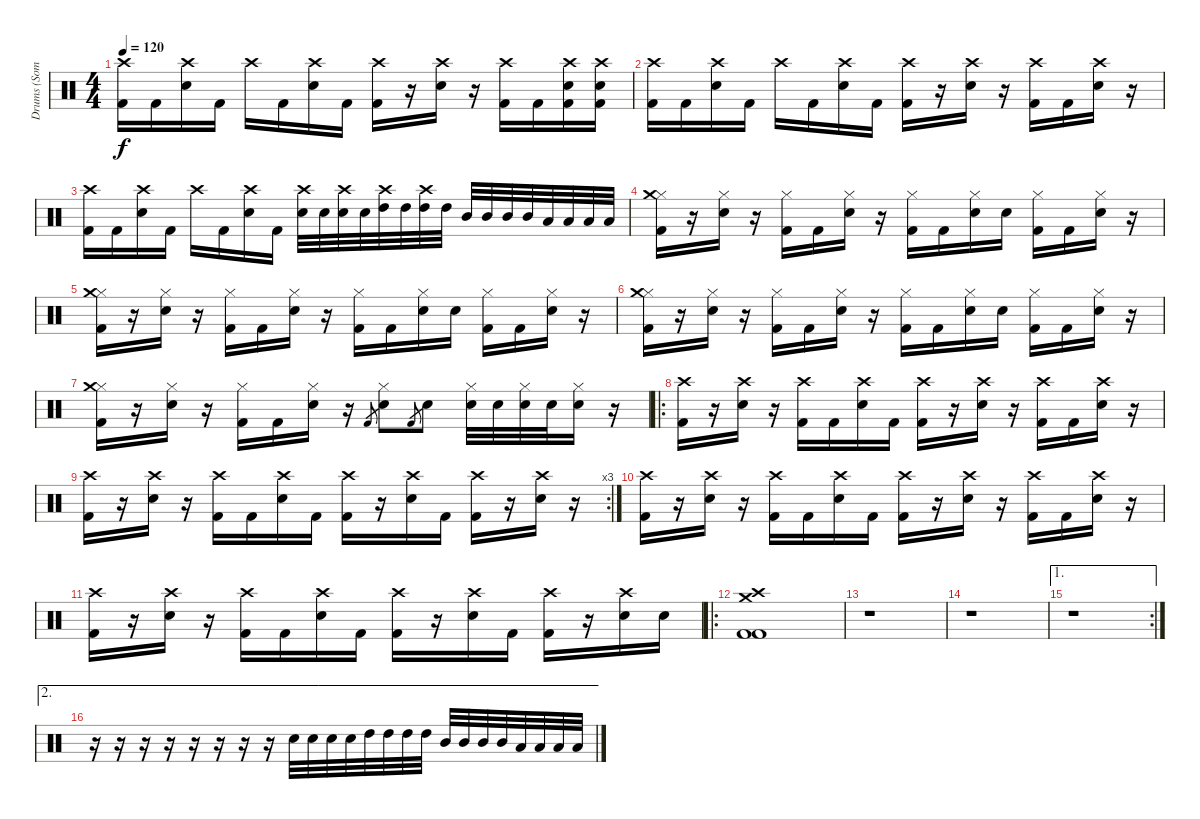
\track ("Drums (Some Person)" "Drums (Som") {instrument percussion}
\staff {score}
\articulation defaults
\ts (4 4)
\tempo 120
\clef neutral
\ks c
("Crash high (hit)" "Kick (hit) 2").16{dy f} "Kick (hit) 2".16 ("Crash high (hit)" "Snare (hit) 2").16 "Kick (hit) 2".16 "Crash high (hit)".16 "Kick (hit) 2".16 ("Crash high (hit)" "Snare (hit) 2").16 "Kick (hit) 2".16 ("Crash high (hit)" "Kick (hit) 2").16 r.16 ("Crash high (hit)" "Snare (hit) 2").16 r.16 ("Crash high (hit)" "Kick (hit) 2").16 "Kick (hit) 2".16 ("Crash high (hit)" "Snare (hit) 2" "Kick (hit) 2").16 ("Crash high (hit)" "Snare (hit) 2" "Kick (hit) 2").16 |
("Crash high (hit)" "Kick (hit) 2").16 "Kick (hit) 2".16 ("Crash high (hit)" "Snare (hit) 2").16 "Kick (hit) 2".16 "Crash high (hit)".16 "Kick (hit) 2".16 ("Crash high (hit)" "Snare (hit) 2").16 "Kick (hit) 2".16 ("Crash high (hit)" "Kick (hit) 2").16 r.16 ("Crash high (hit)" "Snare (hit) 2").16 r.16 ("Crash high (hit)" "Kick (hit) 2").16 "Kick (hit) 2".16 ("Crash high (hit)" "Snare (hit) 2").16 r.16 |
("Crash high (hit)" "Kick (hit) 2").16 "Kick (hit) 2".16 ("Crash high (hit)" "Snare (hit) 2").16 "Kick (hit) 2".16 "Crash high (hit)".16 "Kick (hit) 2".16 ("Crash high (hit)" "Snare (hit) 2").16 "Kick (hit) 2".16 ("Crash high (hit)" "Snare (hit) 2").32 "Snare (hit) 2".32 ("Crash high (hit)" "Snare (hit) 2").32 "Snare (hit) 2".32 ("Crash high (hit)" "High Tom (hit)").32 "High Tom (hit)".32 ("Crash high (hit)" "High Tom (hit)").32 "High Tom (hit)".32 "Mid Tom (hit)".32 "Mid Tom (hit)".32 "Mid Tom (hit)".32 "Mid Tom (hit)".32 "Low Tom (hit)".32 "Low Tom (hit)".32 "Low Tom (hit)".32 "Low Tom (hit)".32 |
("Hi-Hat (closed)" "Crash medium (hit)" "Kick (hit) 2").16 r.16 ("Hi-Hat (closed)" "Snare (hit) 2").16 r.16 ("Hi-Hat (closed)" "Kick (hit) 2").16 "Kick (hit) 2".16 ("Hi-Hat (closed)" "Snare (hit) 2").16 r.16 ("Hi-Hat (closed)" "Kick (hit) 2").16 "Kick (hit) 2".16 ("Hi-Hat (closed)" "Snare (hit) 2").16 "Snare (hit) 2".16 ("Hi-Hat (closed)" "Kick (hit) 2").16 "Kick (hit) 2".16 ("Hi-Hat (closed)" "Snare (hit) 2").16 r.16 |
("Hi-Hat (closed)" "Crash medium (hit)" "Kick (hit) 2").16 r.16 ("Hi-Hat (closed)" "Snare (hit) 2").16 r.16 ("Hi-Hat (closed)" "Kick (hit) 2").16 "Kick (hit) 2".16 ("Hi-Hat (closed)" "Snare (hit) 2").16 r.16 ("Hi-Hat (closed)" "Kick (hit) 2").16 "Kick (hit) 2".16 ("Hi-Hat (closed)" "Snare (hit) 2").16 "Snare (hit) 2".16 ("Hi-Hat (closed)" "Kick (hit) 2").16 "Kick (hit) 2".16 ("Hi-Hat (closed)" "Snare (hit) 2").16 r.16 |
("Hi-Hat (closed)" "Crash medium (hit)" "Kick (hit) 2").16 r.16 ("Hi-Hat (closed)" "Snare (hit) 2").16 r.16 ("Hi-Hat (closed)" "Kick (hit) 2").16 "Kick (hit) 2".16 ("Hi-Hat (closed)" "Snare (hit) 2").16 r.16 ("Hi-Hat (closed)" "Kick (hit) 2").16 "Kick (hit) 2".16 ("Hi-Hat (closed)" "Snare (hit) 2").16 "Snare (hit) 2".16 ("Hi-Hat (closed)" "Kick (hit) 2").16 "Kick (hit) 2".16 ("Hi-Hat (closed)" "Snare (hit) 2").16 r.16 |
("Hi-Hat (closed)" "Crash medium (hit)" "Kick (hit) 2").16 r.16 ("Hi-Hat (closed)" "Snare (hit) 2").16 r.16 ("Hi-Hat (closed)" "Kick (hit) 2").16 "Kick (hit) 2".16 ("Hi-Hat (closed)" "Snare (hit) 2").16 r.16 "Kick (hit) 2".8{gr} ("Hi-Hat (closed)" "Snare (hit) 2").8 "Kick (hit) 2".8{gr} "Snare (hit) 2".8 ("Hi-Hat (closed)" "Snare (hit) 2").32 "Snare (hit) 2".32 ("Hi-Hat (closed)" "Snare (hit) 2").32 "Snare (hit) 2".32 ("Hi-Hat (closed)" "Snare (hit) 2").16 r.16 |
\ro
("Crash high (hit)" "Kick (hit) 2").16 r.16 ("Crash high (hit)" "Snare (hit) 2").16 r.16 ("Crash high (hit)" "Kick (hit) 2").16 "Kick (hit) 2".16 ("Crash high (hit)" "Snare (hit) 2").16 "Kick (hit) 2".16 ("Crash high (hit)" "Kick (hit) 2").16 r.16 ("Crash high (hit)" "Snare (hit) 2").16 r.16 ("Crash high (hit)" "Kick (hit) 2").16 "Kick (hit) 2".16 ("Crash high (hit)" "Snare (hit) 2").16 r.16 |
\rc 3
("Crash high (hit)" "Kick (hit) 2").16 r.16 ("Crash high (hit)" "Snare (hit) 2").16 r.16 ("Crash high (hit)" "Kick (hit) 2").16 "Kick (hit) 2".16 ("Crash high (hit)" "Snare (hit) 2").16 "Kick (hit) 2".16 ("Crash high (hit)" "Kick (hit) 2").16 r.16 ("Crash high (hit)" "Snare (hit) 2").16 "Kick (hit) 2".16 ("Crash high (hit)" "Kick (hit) 2").16 r.16 ("Crash high (hit)" "Snare (hit) 2").16 r.16 |
("Crash high (hit)" "Kick (hit) 2").16 r.16 ("Crash high (hit)" "Snare (hit) 2").16 r.16 ("Crash high (hit)" "Kick (hit) 2").16 "Kick (hit) 2".16 ("Crash high (hit)" "Snare (hit) 2").16 "Kick (hit) 2".16 ("Crash high (hit)" "Kick (hit) 2").16 r.16 ("Crash high (hit)" "Snare (hit) 2").16 r.16 ("Crash high (hit)" "Kick (hit) 2").16 "Kick (hit) 2".16 ("Crash high (hit)" "Snare (hit) 2").16 r.16 |
("Crash high (hit)" "Kick (hit) 2").16 r.16 ("Crash high (hit)" "Snare (hit) 2").16 r.16 ("Crash high (hit)" "Kick (hit) 2").16 "Kick (hit) 2".16 ("Crash high (hit)" "Snare (hit) 2").16 "Kick (hit) 2".16 ("Crash high (hit)" "Kick (hit) 2").16 r.16 ("Crash high (hit)" "Snare (hit) 2").16 "Kick (hit) 2".16 ("Crash high (hit)" "Kick (hit) 2").16 r.16 ("Crash high (hit)" "Snare (hit) 2").16 "Snare (hit) 2".16 |
\ro
("Kick (hit) 2" "Kick (hit) 2" "Crash medium (hit)" "Crash high (hit)").1 |
r.1 |
r.1 |
\ae 1
\rc 2
r.1 |
\ae 2
r.16 r.16 r.16 r.16 r.16 r.16 r.16 r.16 "Snare (hit) 2".32 "Snare (hit) 2".32 "Snare (hit) 2".32 "Snare (hit) 2".32 "High Tom (hit)".32 "High Tom (hit)".32 "High Tom (hit)".32 "High Tom (hit)".32 "Mid Tom (hit)".32 "Mid Tom (hit)".32 "Mid Tom (hit)".32 "Mid Tom (hit)".32 "Low Tom (hit)".32 "Low Tom (hit)".32 "Low Tom (hit)".32 "Low Tom (hit)".32
